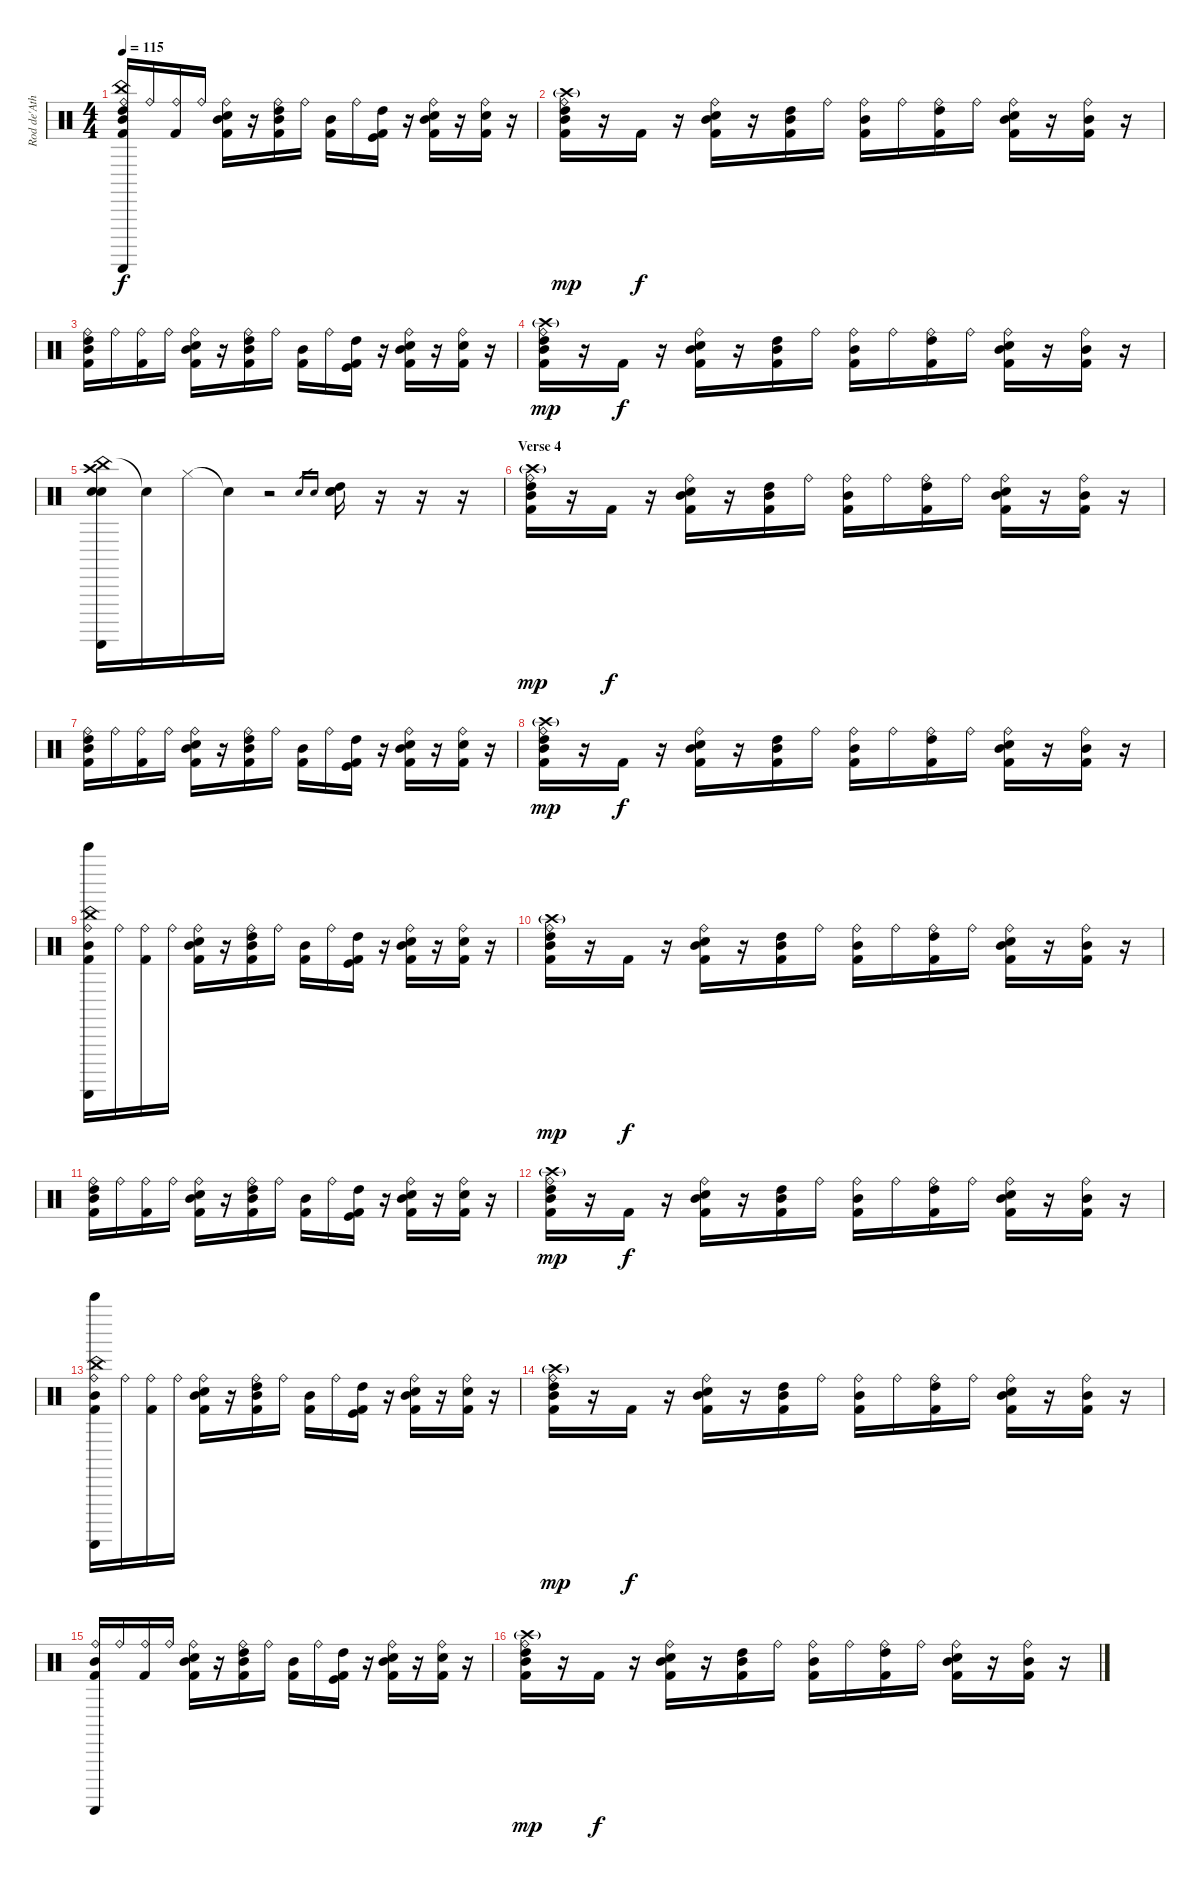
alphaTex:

\track ("Rod de'Ath" "Rod de'Ath") {instrument percussion}
\staff {score}
\articulation defaults
\ts (4 4)
\tempo 115
\clef neutral
\ks c
("Ride (bell)" "China (hit)" "High Tom (hit)" "Mid Tom (hit)" "Kick (hit) 2" "Guiro (scrap-return)").16{dy f} "Ride (bell)".16 ("Ride (bell)" "Kick (hit) 2").16 "Ride (bell)".16 ("Ride (bell)" "Snare (hit) 2" "Mid Tom (hit)" "Kick (hit) 2").16 r.16 ("Ride (bell)" "High Tom (hit)" "Mid Tom (hit)" "Kick (hit) 2").16 "Ride (bell)".16 ("Mid Tom (hit)" "Kick (hit) 2").16 "Ride (bell)".16 ("Kick (hit)" "High Tom (hit)" "Kick (hit) 2").16 r.16 ("Ride (bell)" "Snare (hit) 2" "Mid Tom (hit)" "Kick (hit) 2").16 r.16 ("Ride (bell)" "Electric Snare (hit)" "Kick (hit) 2").16 r.16 |
("Ride (bell)" "High Tom (hit)" "Mid Tom (hit)" "Kick (hit) 2" "Crash high (hit)"{g}).16{dy mp} r.16 "Kick (hit) 2".16{dy f} r.16 ("Ride (bell)" "Snare (hit) 2" "Mid Tom (hit)" "Kick (hit) 2").16 r.16 ("High Tom (hit)" "Mid Tom (hit)" "Kick (hit) 2").16 "Ride (bell)".16 ("Ride (bell)" "Mid Tom (hit)" "Kick (hit) 2").16 "Ride (bell)".16 ("Ride (bell)" "High Tom (hit)" "Kick (hit) 2").16 "Ride (bell)".16 ("Ride (bell)" "Snare (hit) 2" "Mid Tom (hit)" "Kick (hit) 2").16 r.16 ("Ride (bell)" "Mid Tom (hit)" "Kick (hit) 2").16 r.16 |
("Ride (bell)" "High Tom (hit)" "Mid Tom (hit)" "Kick (hit) 2").16 "Ride (bell)".16 ("Ride (bell)" "Kick (hit) 2").16 "Ride (bell)".16 ("Ride (bell)" "Snare (hit) 2" "Mid Tom (hit)" "Kick (hit) 2").16 r.16 ("Ride (bell)" "High Tom (hit)" "Mid Tom (hit)" "Kick (hit) 2").16 "Ride (bell)".16 ("Mid Tom (hit)" "Kick (hit) 2").16 "Ride (bell)".16 ("Kick (hit)" "High Tom (hit)" "Kick (hit) 2").16 r.16 ("Ride (bell)" "Snare (hit) 2" "Mid Tom (hit)" "Kick (hit) 2").16 r.16 ("Ride (bell)" "Electric Snare (hit)" "Kick (hit) 2").16 r.16 |
("Ride (bell)" "High Tom (hit)" "Mid Tom (hit)" "Kick (hit) 2" "Crash high (hit)"{g}).16{dy mp} r.16 "Kick (hit) 2".16{dy f} r.16 ("Ride (bell)" "Snare (hit) 2" "Mid Tom (hit)" "Kick (hit) 2").16 r.16 ("High Tom (hit)" "Mid Tom (hit)" "Kick (hit) 2").16 "Ride (bell)".16 ("Ride (bell)" "Mid Tom (hit)" "Kick (hit) 2").16 "Ride (bell)".16 ("Ride (bell)" "High Tom (hit)" "Kick (hit) 2").16 "Ride (bell)".16 ("Ride (bell)" "Snare (hit) 2" "Mid Tom (hit)" "Kick (hit) 2").16 r.16 ("Ride (bell)" "Mid Tom (hit)" "Kick (hit) 2").16 r.16 |
("China (hit)" "Electric Snare (hit)" "Snare (hit) 2" "Guiro (scrap-return)" "Crash high (hit)").16 "Snare (hit)"{t}.16 "Hi-Hat (closed)".16 "Snare (hit)"{t}.16 r.2 "Snare (hit) 2"{sl}.16{gr} "Electric Snare (hit)"{sl}.16{gr} ("Electric Snare (hit)" "Snare (hit) 2" "High Tom (hit)").16 r.16 r.16 r.16 |
\section ("" "Verse 4")
("Ride (bell)" "High Tom (hit)" "Mid Tom (hit)" "Kick (hit) 2" "Crash high (hit)"{g}).16{dy mp} r.16 "Kick (hit) 2".16{dy f} r.16 ("Ride (bell)" "Snare (hit) 2" "Mid Tom (hit)" "Kick (hit) 2").16 r.16 ("High Tom (hit)" "Mid Tom (hit)" "Kick (hit) 2").16 "Ride (bell)".16 ("Ride (bell)" "Mid Tom (hit)" "Kick (hit) 2").16 "Ride (bell)".16 ("Ride (bell)" "High Tom (hit)" "Kick (hit) 2").16 "Ride (bell)".16 ("Ride (bell)" "Snare (hit) 2" "Mid Tom (hit)" "Kick (hit) 2").16 r.16 ("Ride (bell)" "Mid Tom (hit)" "Kick (hit) 2").16 r.16 |
("Ride (bell)" "High Tom (hit)" "Mid Tom (hit)" "Kick (hit) 2").16 "Ride (bell)".16 ("Ride (bell)" "Kick (hit) 2").16 "Ride (bell)".16 ("Ride (bell)" "Snare (hit) 2" "Mid Tom (hit)" "Kick (hit) 2").16 r.16 ("Ride (bell)" "High Tom (hit)" "Mid Tom (hit)" "Kick (hit) 2").16 "Ride (bell)".16 ("Mid Tom (hit)" "Kick (hit) 2").16 "Ride (bell)".16 ("Kick (hit)" "High Tom (hit)" "Kick (hit) 2").16 r.16 ("Ride (bell)" "Snare (hit) 2" "Mid Tom (hit)" "Kick (hit) 2").16 r.16 ("Ride (bell)" "Electric Snare (hit)" "Kick (hit) 2").16 r.16 |
("Ride (bell)" "High Tom (hit)" "Mid Tom (hit)" "Kick (hit) 2" "Crash high (hit)"{g}).16{dy mp} r.16 "Kick (hit) 2".16{dy f} r.16 ("Ride (bell)" "Snare (hit) 2" "Mid Tom (hit)" "Kick (hit) 2").16 r.16 ("High Tom (hit)" "Mid Tom (hit)" "Kick (hit) 2").16 "Ride (bell)".16 ("Ride (bell)" "Mid Tom (hit)" "Kick (hit) 2").16 "Ride (bell)".16 ("Ride (bell)" "High Tom (hit)" "Kick (hit) 2").16 "Ride (bell)".16 ("Ride (bell)" "Snare (hit) 2" "Mid Tom (hit)" "Kick (hit) 2").16 r.16 ("Ride (bell)" "Mid Tom (hit)" "Kick (hit) 2").16 r.16 |
("Ride (bell)" "Bell Tree (hit)" "China (hit)" "Mid Tom (hit)" "Kick (hit) 2" "Guiro (scrap-return)").16 "Ride (bell)".16 ("Ride (bell)" "Kick (hit) 2").16 "Ride (bell)".16 ("Ride (bell)" "Snare (hit) 2" "Mid Tom (hit)" "Kick (hit) 2").16 r.16 ("Ride (bell)" "High Tom (hit)" "Mid Tom (hit)" "Kick (hit) 2").16 "Ride (bell)".16 ("Mid Tom (hit)" "Kick (hit) 2").16 "Ride (bell)".16 ("Kick (hit)" "High Tom (hit)" "Kick (hit) 2").16 r.16 ("Ride (bell)" "Snare (hit) 2" "Mid Tom (hit)" "Kick (hit) 2").16 r.16 ("Ride (bell)" "Electric Snare (hit)" "Kick (hit) 2").16 r.16 |
("Ride (bell)" "High Tom (hit)" "Mid Tom (hit)" "Kick (hit) 2" "Crash high (hit)"{g}).16{dy mp} r.16 "Kick (hit) 2".16{dy f} r.16 ("Ride (bell)" "Snare (hit) 2" "Mid Tom (hit)" "Kick (hit) 2").16 r.16 ("High Tom (hit)" "Mid Tom (hit)" "Kick (hit) 2").16 "Ride (bell)".16 ("Ride (bell)" "Mid Tom (hit)" "Kick (hit) 2").16 "Ride (bell)".16 ("Ride (bell)" "High Tom (hit)" "Kick (hit) 2").16 "Ride (bell)".16 ("Ride (bell)" "Snare (hit) 2" "Mid Tom (hit)" "Kick (hit) 2").16 r.16 ("Ride (bell)" "Mid Tom (hit)" "Kick (hit) 2").16 r.16 |
("Ride (bell)" "High Tom (hit)" "Mid Tom (hit)" "Kick (hit) 2").16 "Ride (bell)".16 ("Ride (bell)" "Kick (hit) 2").16 "Ride (bell)".16 ("Ride (bell)" "Snare (hit) 2" "Mid Tom (hit)" "Kick (hit) 2").16 r.16 ("Ride (bell)" "High Tom (hit)" "Mid Tom (hit)" "Kick (hit) 2").16 "Ride (bell)".16 ("Mid Tom (hit)" "Kick (hit) 2").16 "Ride (bell)".16 ("Kick (hit)" "High Tom (hit)" "Kick (hit) 2").16 r.16 ("Ride (bell)" "Snare (hit) 2" "Mid Tom (hit)" "Kick (hit) 2").16 r.16 ("Ride (bell)" "Electric Snare (hit)" "Kick (hit) 2").16 r.16 |
("Ride (bell)" "High Tom (hit)" "Mid Tom (hit)" "Kick (hit) 2" "Crash high (hit)"{g}).16{dy mp} r.16 "Kick (hit) 2".16{dy f} r.16 ("Ride (bell)" "Snare (hit) 2" "Mid Tom (hit)" "Kick (hit) 2").16 r.16 ("High Tom (hit)" "Mid Tom (hit)" "Kick (hit) 2").16 "Ride (bell)".16 ("Ride (bell)" "Mid Tom (hit)" "Kick (hit) 2").16 "Ride (bell)".16 ("Ride (bell)" "High Tom (hit)" "Kick (hit) 2").16 "Ride (bell)".16 ("Ride (bell)" "Snare (hit) 2" "Mid Tom (hit)" "Kick (hit) 2").16 r.16 ("Ride (bell)" "Mid Tom (hit)" "Kick (hit) 2").16 r.16 |
("Ride (bell)" "Bell Tree (hit)" "China (hit)" "Mid Tom (hit)" "Kick (hit) 2" "Guiro (scrap-return)").16 "Ride (bell)".16 ("Ride (bell)" "Kick (hit) 2").16 "Ride (bell)".16 ("Ride (bell)" "Snare (hit) 2" "Mid Tom (hit)" "Kick (hit) 2").16 r.16 ("Ride (bell)" "High Tom (hit)" "Mid Tom (hit)" "Kick (hit) 2").16 "Ride (bell)".16 ("Mid Tom (hit)" "Kick (hit) 2").16 "Ride (bell)".16 ("Kick (hit)" "High Tom (hit)" "Kick (hit) 2").16 r.16 ("Ride (bell)" "Snare (hit) 2" "Mid Tom (hit)" "Kick (hit) 2").16 r.16 ("Ride (bell)" "Electric Snare (hit)" "Kick (hit) 2").16 r.16 |
("Ride (bell)" "High Tom (hit)" "Mid Tom (hit)" "Kick (hit) 2" "Crash high (hit)"{g}).16{dy mp} r.16 "Kick (hit) 2".16{dy f} r.16 ("Ride (bell)" "Snare (hit) 2" "Mid Tom (hit)" "Kick (hit) 2").16 r.16 ("High Tom (hit)" "Mid Tom (hit)" "Kick (hit) 2").16 "Ride (bell)".16 ("Ride (bell)" "Mid Tom (hit)" "Kick (hit) 2").16 "Ride (bell)".16 ("Ride (bell)" "High Tom (hit)" "Kick (hit) 2").16 "Ride (bell)".16 ("Ride (bell)" "Snare (hit) 2" "Mid Tom (hit)" "Kick (hit) 2").16 r.16 ("Ride (bell)" "Mid Tom (hit)" "Kick (hit) 2").16 r.16 |
("Ride (bell)" "Guiro (scrap-return)" "Mid Tom (hit)" "Kick (hit) 2").16 "Ride (bell)".16 ("Ride (bell)" "Kick (hit) 2").16 "Ride (bell)".16 ("Ride (bell)" "Snare (hit) 2" "Mid Tom (hit)" "Kick (hit) 2").16 r.16 ("Ride (bell)" "High Tom (hit)" "Mid Tom (hit)" "Kick (hit) 2").16 "Ride (bell)".16 ("Mid Tom (hit)" "Kick (hit) 2").16 "Ride (bell)".16 ("Kick (hit)" "High Tom (hit)" "Kick (hit) 2").16 r.16 ("Ride (bell)" "Snare (hit) 2" "Mid Tom (hit)" "Kick (hit) 2").16 r.16 ("Ride (bell)" "Electric Snare (hit)" "Kick (hit) 2").16 r.16 |
("Ride (bell)" "High Tom (hit)" "Mid Tom (hit)" "Kick (hit) 2" "Crash high (hit)"{g}).16{dy mp} r.16 "Kick (hit) 2".16{dy f} r.16 ("Ride (bell)" "Snare (hit) 2" "Mid Tom (hit)" "Kick (hit) 2").16 r.16 ("High Tom (hit)" "Mid Tom (hit)" "Kick (hit) 2").16 "Ride (bell)".16 ("Ride (bell)" "Mid Tom (hit)" "Kick (hit) 2").16 "Ride (bell)".16 ("Ride (bell)" "High Tom (hit)" "Kick (hit) 2").16 "Ride (bell)".16 ("Ride (bell)" "Snare (hit) 2" "Mid Tom (hit)" "Kick (hit) 2").16 r.16 ("Ride (bell)" "Mid Tom (hit)" "Kick (hit) 2").16 r.16
